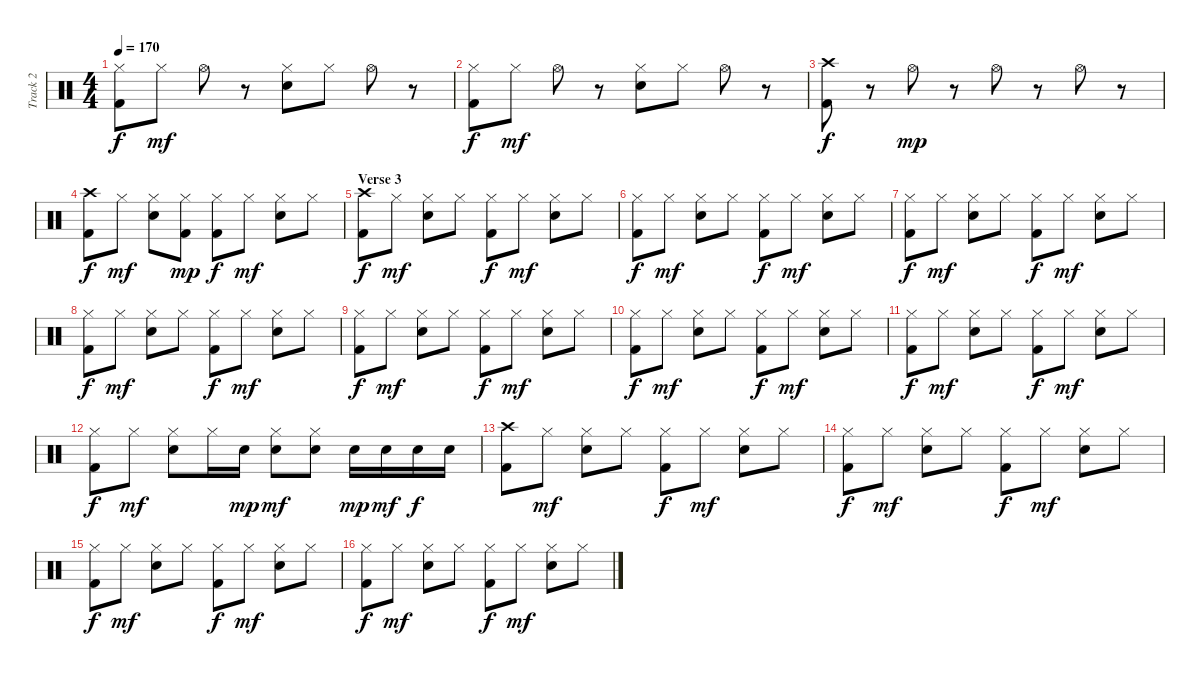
\track ("Track 2" "Track 2") {instrument percussion}
\staff {score}
\articulation defaults
\ts (4 4)
\tempo 170
\clef neutral
\ks c
("Hi-Hat (closed)" "Kick (hit) 2").8{dy f} "Hi-Hat (closed)".8{dy mf} "Hi-Hat (open)".8 r.8 ("Hi-Hat (closed)" "Electric Snare (hit)").8 "Hi-Hat (closed)".8 "Hi-Hat (open)".8 r.8 |
("Hi-Hat (closed)" "Kick (hit) 2").8{dy f} "Hi-Hat (closed)".8{dy mf} "Hi-Hat (open)".8 r.8 ("Hi-Hat (closed)" "Electric Snare (hit)").8 "Hi-Hat (closed)".8 "Hi-Hat (open)".8 r.8 |
("Crash high (hit)" "Kick (hit) 2").8{dy f} r.8 "Hi-Hat (open)".8{dy mp} r.8 "Hi-Hat (open)".8 r.8 "Hi-Hat (open)".8 r.8 |
("Crash high (hit)" "Kick (hit) 2").8{dy f} "Hi-Hat (closed)".8{dy mf} ("Hi-Hat (closed)" "Electric Snare (hit)").8 ("Hi-Hat (closed)" "Kick (hit) 2").8{dy mp} ("Hi-Hat (closed)" "Kick (hit) 2").8{dy f} "Hi-Hat (closed)".8{dy mf} ("Hi-Hat (closed)" "Electric Snare (hit)").8 "Hi-Hat (closed)".8 |
\section ("" "Verse 3")
("Crash high (hit)" "Kick (hit) 2").8{dy f} "Hi-Hat (closed)".8{dy mf} ("Hi-Hat (closed)" "Electric Snare (hit)").8 "Hi-Hat (closed)".8 ("Hi-Hat (closed)" "Kick (hit) 2").8{dy f} "Hi-Hat (closed)".8{dy mf} ("Hi-Hat (closed)" "Electric Snare (hit)").8 "Hi-Hat (closed)".8 |
("Hi-Hat (closed)" "Kick (hit) 2").8{dy f} "Hi-Hat (closed)".8{dy mf} ("Hi-Hat (closed)" "Electric Snare (hit)").8 "Hi-Hat (closed)".8 ("Hi-Hat (closed)" "Kick (hit) 2").8{dy f} "Hi-Hat (closed)".8{dy mf} ("Hi-Hat (closed)" "Electric Snare (hit)").8 "Hi-Hat (closed)".8 |
("Hi-Hat (closed)" "Kick (hit) 2").8{dy f} "Hi-Hat (closed)".8{dy mf} ("Hi-Hat (closed)" "Electric Snare (hit)").8 "Hi-Hat (closed)".8 ("Hi-Hat (closed)" "Kick (hit) 2").8{dy f} "Hi-Hat (closed)".8{dy mf} ("Hi-Hat (closed)" "Electric Snare (hit)").8 "Hi-Hat (closed)".8 |
("Hi-Hat (closed)" "Kick (hit) 2").8{dy f} "Hi-Hat (closed)".8{dy mf} ("Hi-Hat (closed)" "Electric Snare (hit)").8 "Hi-Hat (closed)".8 ("Hi-Hat (closed)" "Kick (hit) 2").8{dy f} "Hi-Hat (closed)".8{dy mf} ("Hi-Hat (closed)" "Electric Snare (hit)").8 "Hi-Hat (closed)".8 |
("Hi-Hat (closed)" "Kick (hit) 2").8{dy f} "Hi-Hat (closed)".8{dy mf} ("Hi-Hat (closed)" "Electric Snare (hit)").8 "Hi-Hat (closed)".8 ("Hi-Hat (closed)" "Kick (hit) 2").8{dy f} "Hi-Hat (closed)".8{dy mf} ("Hi-Hat (closed)" "Electric Snare (hit)").8 "Hi-Hat (closed)".8 |
("Hi-Hat (closed)" "Kick (hit) 2").8{dy f} "Hi-Hat (closed)".8{dy mf} ("Hi-Hat (closed)" "Electric Snare (hit)").8 "Hi-Hat (closed)".8 ("Hi-Hat (closed)" "Kick (hit) 2").8{dy f} "Hi-Hat (closed)".8{dy mf} ("Hi-Hat (closed)" "Electric Snare (hit)").8 "Hi-Hat (closed)".8 |
("Hi-Hat (closed)" "Kick (hit) 2").8{dy f} "Hi-Hat (closed)".8{dy mf} ("Hi-Hat (closed)" "Electric Snare (hit)").8 "Hi-Hat (closed)".8 ("Hi-Hat (closed)" "Kick (hit) 2").8{dy f} "Hi-Hat (closed)".8{dy mf} ("Hi-Hat (closed)" "Electric Snare (hit)").8 "Hi-Hat (closed)".8 |
("Hi-Hat (closed)" "Kick (hit) 2").8{dy f} "Hi-Hat (closed)".8{dy mf} ("Hi-Hat (closed)" "Electric Snare (hit)").8 "Hi-Hat (closed)".16 "Electric Snare (hit)".16{dy mp} ("Hi-Hat (closed)" "Electric Snare (hit)").8{dy mf} ("Hi-Hat (closed)" "Electric Snare (hit)").8 "Electric Snare (hit)".16{dy mp} "Electric Snare (hit)".16{dy mf} "Electric Snare (hit)".16{dy f} "Electric Snare (hit)".16 |
("Crash high (hit)" "Kick (hit) 2").8 "Hi-Hat (closed)".8{dy mf} ("Hi-Hat (closed)" "Electric Snare (hit)").8 "Hi-Hat (closed)".8 ("Hi-Hat (closed)" "Kick (hit) 2").8{dy f} "Hi-Hat (closed)".8{dy mf} ("Hi-Hat (closed)" "Electric Snare (hit)").8 "Hi-Hat (closed)".8 |
("Hi-Hat (closed)" "Kick (hit) 2").8{dy f} "Hi-Hat (closed)".8{dy mf} ("Hi-Hat (closed)" "Electric Snare (hit)").8 "Hi-Hat (closed)".8 ("Hi-Hat (closed)" "Kick (hit) 2").8{dy f} "Hi-Hat (closed)".8{dy mf} ("Hi-Hat (closed)" "Electric Snare (hit)").8 "Hi-Hat (closed)".8 |
("Hi-Hat (closed)" "Kick (hit) 2").8{dy f} "Hi-Hat (closed)".8{dy mf} ("Hi-Hat (closed)" "Electric Snare (hit)").8 "Hi-Hat (closed)".8 ("Hi-Hat (closed)" "Kick (hit) 2").8{dy f} "Hi-Hat (closed)".8{dy mf} ("Hi-Hat (closed)" "Electric Snare (hit)").8 "Hi-Hat (closed)".8 |
("Hi-Hat (closed)" "Kick (hit) 2").8{dy f} "Hi-Hat (closed)".8{dy mf} ("Hi-Hat (closed)" "Electric Snare (hit)").8 "Hi-Hat (closed)".8 ("Hi-Hat (closed)" "Kick (hit) 2").8{dy f} "Hi-Hat (closed)".8{dy mf} ("Hi-Hat (closed)" "Electric Snare (hit)").8 "Hi-Hat (closed)".8
